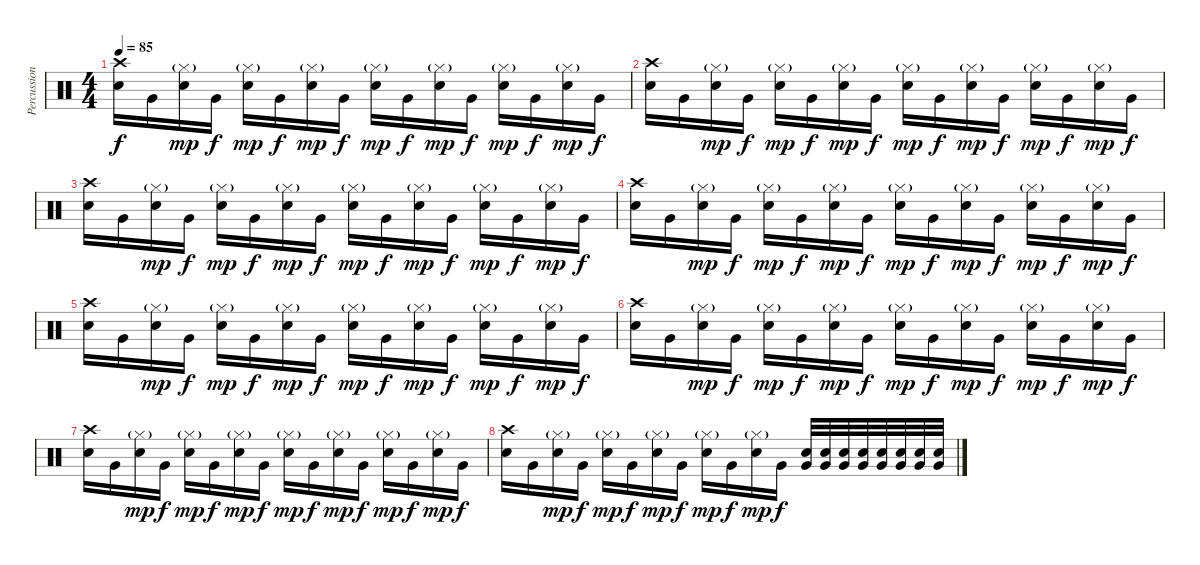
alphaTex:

\track ("Percussion" "Percussion") {instrument percussion}
\staff {score}
\articulation defaults
\ts (4 4)
\tempo 85
\clef neutral
\ks c
("Crash high (hit)" "Electric Snare (hit)").16{dy f} "Very Low Tom (hit)".16 ("Hi-Hat (closed)"{g} "Electric Snare (hit)").16{dy mp} "Very Low Tom (hit)".16{dy f} ("Hi-Hat (closed)"{g} "Electric Snare (hit)").16{dy mp} "Very Low Tom (hit)".16{dy f} ("Hi-Hat (closed)"{g} "Electric Snare (hit)").16{dy mp} "Very Low Tom (hit)".16{dy f} ("Hi-Hat (closed)"{g} "Electric Snare (hit)").16{dy mp} "Very Low Tom (hit)".16{dy f} ("Hi-Hat (closed)"{g} "Electric Snare (hit)").16{dy mp} "Very Low Tom (hit)".16{dy f} ("Hi-Hat (closed)"{g} "Electric Snare (hit)").16{dy mp} "Very Low Tom (hit)".16{dy f} ("Hi-Hat (closed)"{g} "Electric Snare (hit)").16{dy mp} "Very Low Tom (hit)".16{dy f} |
("Crash high (hit)" "Electric Snare (hit)").16 "Very Low Tom (hit)".16 ("Hi-Hat (closed)"{g} "Electric Snare (hit)").16{dy mp} "Very Low Tom (hit)".16{dy f} ("Hi-Hat (closed)"{g} "Electric Snare (hit)").16{dy mp} "Very Low Tom (hit)".16{dy f} ("Hi-Hat (closed)"{g} "Electric Snare (hit)").16{dy mp} "Very Low Tom (hit)".16{dy f} ("Hi-Hat (closed)"{g} "Electric Snare (hit)").16{dy mp} "Very Low Tom (hit)".16{dy f} ("Hi-Hat (closed)"{g} "Electric Snare (hit)").16{dy mp} "Very Low Tom (hit)".16{dy f} ("Hi-Hat (closed)"{g} "Electric Snare (hit)").16{dy mp} "Very Low Tom (hit)".16{dy f} ("Hi-Hat (closed)"{g} "Electric Snare (hit)").16{dy mp} "Very Low Tom (hit)".16{dy f} |
("Crash high (hit)" "Electric Snare (hit)").16 "Very Low Tom (hit)".16 ("Hi-Hat (closed)"{g} "Electric Snare (hit)").16{dy mp} "Very Low Tom (hit)".16{dy f} ("Hi-Hat (closed)"{g} "Electric Snare (hit)").16{dy mp} "Very Low Tom (hit)".16{dy f} ("Hi-Hat (closed)"{g} "Electric Snare (hit)").16{dy mp} "Very Low Tom (hit)".16{dy f} ("Hi-Hat (closed)"{g} "Electric Snare (hit)").16{dy mp} "Very Low Tom (hit)".16{dy f} ("Hi-Hat (closed)"{g} "Electric Snare (hit)").16{dy mp} "Very Low Tom (hit)".16{dy f} ("Hi-Hat (closed)"{g} "Electric Snare (hit)").16{dy mp} "Very Low Tom (hit)".16{dy f} ("Hi-Hat (closed)"{g} "Electric Snare (hit)").16{dy mp} "Very Low Tom (hit)".16{dy f} |
("Crash high (hit)" "Electric Snare (hit)").16 "Very Low Tom (hit)".16 ("Hi-Hat (closed)"{g} "Electric Snare (hit)").16{dy mp} "Very Low Tom (hit)".16{dy f} ("Hi-Hat (closed)"{g} "Electric Snare (hit)").16{dy mp} "Very Low Tom (hit)".16{dy f} ("Hi-Hat (closed)"{g} "Electric Snare (hit)").16{dy mp} "Very Low Tom (hit)".16{dy f} ("Hi-Hat (closed)"{g} "Electric Snare (hit)").16{dy mp} "Very Low Tom (hit)".16{dy f} ("Hi-Hat (closed)"{g} "Electric Snare (hit)").16{dy mp} "Very Low Tom (hit)".16{dy f} ("Hi-Hat (closed)"{g} "Electric Snare (hit)").16{dy mp} "Very Low Tom (hit)".16{dy f} ("Hi-Hat (closed)"{g} "Electric Snare (hit)").16{dy mp} "Very Low Tom (hit)".16{dy f} |
("Crash high (hit)" "Electric Snare (hit)").16 "Very Low Tom (hit)".16 ("Hi-Hat (closed)"{g} "Electric Snare (hit)").16{dy mp} "Very Low Tom (hit)".16{dy f} ("Hi-Hat (closed)"{g} "Electric Snare (hit)").16{dy mp} "Very Low Tom (hit)".16{dy f} ("Hi-Hat (closed)"{g} "Electric Snare (hit)").16{dy mp} "Very Low Tom (hit)".16{dy f} ("Hi-Hat (closed)"{g} "Electric Snare (hit)").16{dy mp} "Very Low Tom (hit)".16{dy f} ("Hi-Hat (closed)"{g} "Electric Snare (hit)").16{dy mp} "Very Low Tom (hit)".16{dy f} ("Hi-Hat (closed)"{g} "Electric Snare (hit)").16{dy mp} "Very Low Tom (hit)".16{dy f} ("Hi-Hat (closed)"{g} "Electric Snare (hit)").16{dy mp} "Very Low Tom (hit)".16{dy f} |
("Crash high (hit)" "Electric Snare (hit)").16 "Very Low Tom (hit)".16 ("Hi-Hat (closed)"{g} "Electric Snare (hit)").16{dy mp} "Very Low Tom (hit)".16{dy f} ("Hi-Hat (closed)"{g} "Electric Snare (hit)").16{dy mp} "Very Low Tom (hit)".16{dy f} ("Hi-Hat (closed)"{g} "Electric Snare (hit)").16{dy mp} "Very Low Tom (hit)".16{dy f} ("Hi-Hat (closed)"{g} "Electric Snare (hit)").16{dy mp} "Very Low Tom (hit)".16{dy f} ("Hi-Hat (closed)"{g} "Electric Snare (hit)").16{dy mp} "Very Low Tom (hit)".16{dy f} ("Hi-Hat (closed)"{g} "Electric Snare (hit)").16{dy mp} "Very Low Tom (hit)".16{dy f} ("Hi-Hat (closed)"{g} "Electric Snare (hit)").16{dy mp} "Very Low Tom (hit)".16{dy f} |
("Crash high (hit)" "Electric Snare (hit)").16 "Very Low Tom (hit)".16 ("Hi-Hat (closed)"{g} "Electric Snare (hit)").16{dy mp} "Very Low Tom (hit)".16{dy f} ("Hi-Hat (closed)"{g} "Electric Snare (hit)").16{dy mp} "Very Low Tom (hit)".16{dy f} ("Hi-Hat (closed)"{g} "Electric Snare (hit)").16{dy mp} "Very Low Tom (hit)".16{dy f} ("Hi-Hat (closed)"{g} "Electric Snare (hit)").16{dy mp} "Very Low Tom (hit)".16{dy f} ("Hi-Hat (closed)"{g} "Electric Snare (hit)").16{dy mp} "Very Low Tom (hit)".16{dy f} ("Hi-Hat (closed)"{g} "Electric Snare (hit)").16{dy mp} "Very Low Tom (hit)".16{dy f} ("Hi-Hat (closed)"{g} "Electric Snare (hit)").16{dy mp} "Very Low Tom (hit)".16{dy f} |
("Crash high (hit)" "Electric Snare (hit)").16 "Very Low Tom (hit)".16 ("Hi-Hat (closed)"{g} "Electric Snare (hit)").16{dy mp} "Very Low Tom (hit)".16{dy f} ("Hi-Hat (closed)"{g} "Electric Snare (hit)").16{dy mp} "Very Low Tom (hit)".16{dy f} ("Hi-Hat (closed)"{g} "Electric Snare (hit)").16{dy mp} "Very Low Tom (hit)".16{dy f} ("Hi-Hat (closed)"{g} "Electric Snare (hit)").16{dy mp} "Very Low Tom (hit)".16{dy f} ("Hi-Hat (closed)"{g} "Electric Snare (hit)").16{dy mp} "Very Low Tom (hit)".16{dy f} ("Very Low Tom (hit)" "Electric Snare (hit)").32 ("Very Low Tom (hit)" "Electric Snare (hit)").32 ("Very Low Tom (hit)" "Electric Snare (hit)").32 ("Very Low Tom (hit)" "Electric Snare (hit)").32 ("Very Low Tom (hit)" "Electric Snare (hit)").32 ("Very Low Tom (hit)" "Electric Snare (hit)").32 ("Very Low Tom (hit)" "Electric Snare (hit)").32 ("Very Low Tom (hit)" "Electric Snare (hit)").32
